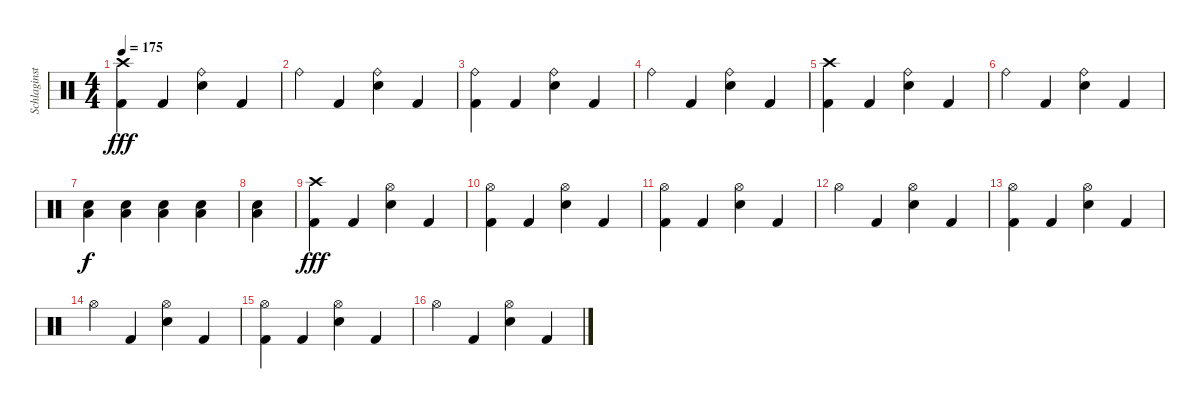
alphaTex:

\track ("Schlaginstrumente - Auswahl" "Schlaginst") {instrument percussion}
\staff {score}
\articulation defaults
\ts (4 4)
\tempo 175
\clef neutral
\ks c
("Crash high (hit)" "Kick (hit) 2").4{dy fff} "Kick (hit) 2".4 ("Ride (bell)" "Electric Snare (hit)").4 "Kick (hit) 2".4 |
"Ride (bell)".4 "Kick (hit) 2".4 ("Ride (bell)" "Electric Snare (hit)").4 "Kick (hit) 2".4 |
("Ride (bell)" "Kick (hit) 2").4 "Kick (hit) 2".4 ("Ride (bell)" "Electric Snare (hit)").4 "Kick (hit) 2".4 |
"Ride (bell)".4 "Kick (hit) 2".4 ("Ride (bell)" "Electric Snare (hit)").4 "Kick (hit) 2".4 |
("Crash high (hit)" "Kick (hit) 2").4 "Kick (hit) 2".4 ("Ride (bell)" "Electric Snare (hit)").4 "Kick (hit) 2".4 |
"Ride (bell)".4 "Kick (hit) 2".4 ("Ride (bell)" "Electric Snare (hit)").4 "Kick (hit) 2".4 |
("Electric Snare (hit)" "Low Floor Tom (hit)").4{dy f} ("Electric Snare (hit)" "Low Floor Tom (hit)").4 ("Electric Snare (hit)" "Low Floor Tom (hit)").4 ("Electric Snare (hit)" "Low Floor Tom (hit)").4 |
("Electric Snare (hit)" "Low Floor Tom (hit)").4 |
("Crash high (hit)" "Kick (hit) 2").4{dy fff} "Kick (hit) 2".4 ("Hi-Hat (open)" "Electric Snare (hit)").4 "Kick (hit) 2".4 |
("Hi-Hat (open)" "Kick (hit) 2").4 "Kick (hit) 2".4 ("Hi-Hat (open)" "Electric Snare (hit)").4 "Kick (hit) 2".4 |
("Hi-Hat (open)" "Kick (hit) 2").4 "Kick (hit) 2".4 ("Hi-Hat (open)" "Electric Snare (hit)").4 "Kick (hit) 2".4 |
"Hi-Hat (open)".4 "Kick (hit) 2".4 ("Hi-Hat (open)" "Electric Snare (hit)").4 "Kick (hit) 2".4 |
("Hi-Hat (open)" "Kick (hit) 2").4 "Kick (hit) 2".4 ("Hi-Hat (open)" "Electric Snare (hit)").4 "Kick (hit) 2".4 |
"Hi-Hat (open)".4 "Kick (hit) 2".4 ("Hi-Hat (open)" "Electric Snare (hit)").4 "Kick (hit) 2".4 |
("Hi-Hat (open)" "Kick (hit) 2").4 "Kick (hit) 2".4 ("Hi-Hat (open)" "Electric Snare (hit)").4 "Kick (hit) 2".4 |
"Hi-Hat (open)".4 "Kick (hit) 2".4 ("Hi-Hat (open)" "Electric Snare (hit)").4 "Kick (hit) 2".4
